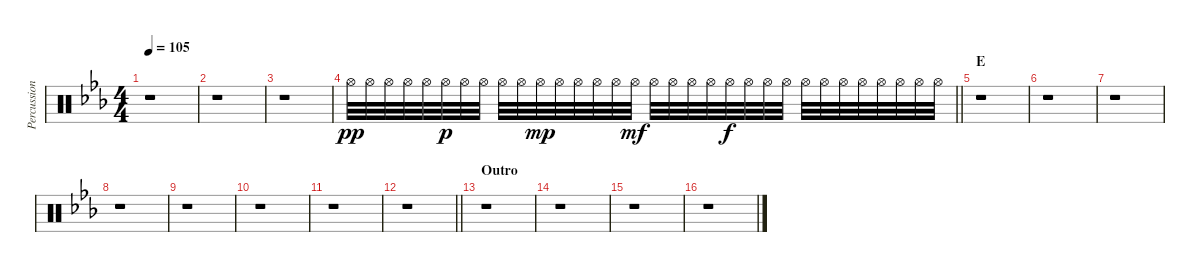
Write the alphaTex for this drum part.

\track ("Percussion" "Percussion") {instrument percussion}
\staff {score}
\articulation defaults
\ts (4 4)
\tempo 105
\clef neutral
\ks eb
r.1{dy f} |
r.1 |
r.1 |
\barLineRight lightlight "Hi-Hat (open)".32{dy pp} "Hi-Hat (open)".32 "Hi-Hat (open)".32 "Hi-Hat (open)".32 "Hi-Hat (open)".32 "Hi-Hat (open)".32{dy p} "Hi-Hat (open)".32 "Hi-Hat (open)".32 "Hi-Hat (open)".32 "Hi-Hat (open)".32 "Hi-Hat (open)".32{dy mp} "Hi-Hat (open)".32 "Hi-Hat (open)".32 "Hi-Hat (open)".32 "Hi-Hat (open)".32 "Hi-Hat (open)".32{dy mf} "Hi-Hat (open)".32 "Hi-Hat (open)".32 "Hi-Hat (open)".32 "Hi-Hat (open)".32 "Hi-Hat (open)".32{dy f} "Hi-Hat (open)".32 "Hi-Hat (open)".32 "Hi-Hat (open)".32 "Hi-Hat (open)".32 "Hi-Hat (open)".32 "Hi-Hat (open)".32 "Hi-Hat (open)".32 "Hi-Hat (open)".32 "Hi-Hat (open)".32 "Hi-Hat (open)".32 "Hi-Hat (open)".32
|
\section ("" "E")
r.1 |
r.1 |
r.1 |
r.1 |
r.1 |
r.1 |
r.1 |
\barLineRight lightlight
r.1 |
\section ("" "Outro")
r.1 |
r.1 |
r.1 |
r.1
